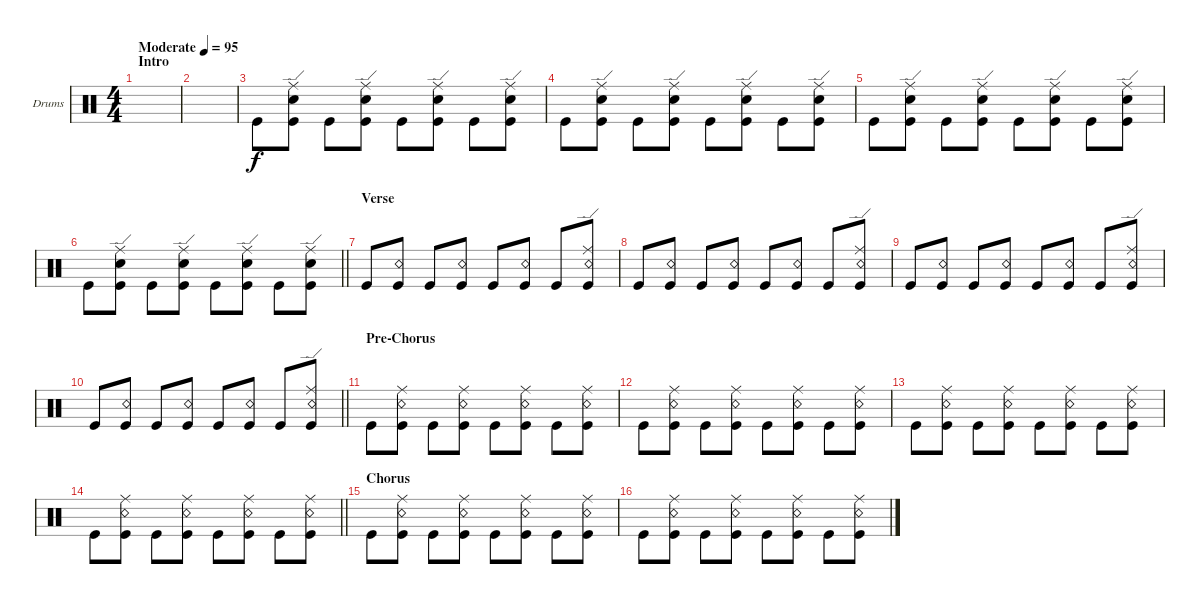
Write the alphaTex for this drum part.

\bracketExtendMode groupsimilarinstruments
\firstSystemTrackNameOrientation horizontal
\otherSystemsTrackNameOrientation horizontal
\track ("Drumkit" "Drums") {instrument percussion}
\staff {score}
\articulation defaults
\ts (4 4)
\beaming (8 2 2 2 2)
\section ("" "Intro")
\tempo (95 "Moderate")
\clef neutral
\scale
0.472222
\ks c
|
\scale
0.263889 |
\scale
0.263889 "Kick (hit)".8 ("Kick (hit)" "Snare (hit) 2" "Ride (edge)").8 "Kick (hit)".8 ("Kick (hit)" "Snare (hit) 2" "Ride (edge)").8 "Kick (hit)".8 ("Kick (hit)" "Snare (hit) 2" "Ride (edge)").8 "Kick (hit)".8 ("Kick (hit)" "Snare (hit) 2" "Ride (edge)").8 |
\scale
0.333333 "Kick (hit)".8 ("Kick (hit)" "Snare (hit) 2" "Ride (edge)").8 "Kick (hit)".8 ("Kick (hit)" "Snare (hit) 2" "Ride (edge)").8 "Kick (hit)".8 ("Kick (hit)" "Snare (hit) 2" "Ride (edge)").8 "Kick (hit)".8 ("Kick (hit)" "Snare (hit) 2" "Ride (edge)").8 |
\scale
0.333333 "Kick (hit)".8 ("Kick (hit)" "Snare (hit) 2" "Ride (edge)").8 "Kick (hit)".8 ("Kick (hit)" "Snare (hit) 2" "Ride (edge)").8 "Kick (hit)".8 ("Kick (hit)" "Snare (hit) 2" "Ride (edge)").8 "Kick (hit)".8 ("Kick (hit)" "Snare (hit) 2" "Ride (edge)").8 |
\scale
0.333333
\barLineRight lightlight "Kick (hit)".8
("Kick (hit)" "Snare (hit) 2" "Ride (edge)").8 "Kick (hit)".8 ("Kick (hit)" "Snare (hit) 2" "Ride (edge)").8 "Kick (hit)".8 ("Kick (hit)" "Snare (hit) 2" "Ride (edge)").8 "Kick (hit)".8 ("Kick (hit)" "Snare (hit) 2" "Ride (edge)").8 |
\section ("" "Verse")
\scale
0.333333 "Kick (hit)".8 ("Kick (hit)" "Snare (rim shot)").8 "Kick (hit)".8 ("Kick (hit)" "Snare (rim shot)").8 "Kick (hit)".8 ("Kick (hit)" "Snare (rim shot)").8 "Kick (hit)".8 ("Kick (hit)" "Snare (rim shot)" "Ride (edge)").8 |
\scale
0.333333 "Kick (hit)".8 ("Kick (hit)" "Snare (rim shot)").8 "Kick (hit)".8 ("Kick (hit)" "Snare (rim shot)").8 "Kick (hit)".8 ("Kick (hit)" "Snare (rim shot)").8 "Kick (hit)".8 ("Kick (hit)" "Snare (rim shot)" "Ride (edge)").8 |
\scale
0.333333 "Kick (hit)".8 ("Kick (hit)" "Snare (rim shot)").8 "Kick (hit)".8 ("Kick (hit)" "Snare (rim shot)").8 "Kick (hit)".8 ("Kick (hit)" "Snare (rim shot)").8 "Kick (hit)".8 ("Kick (hit)" "Snare (rim shot)" "Ride (edge)").8 |
\scale
0.333333
\barLineRight lightlight "Kick (hit)".8
("Kick (hit)" "Snare (rim shot)").8 "Kick (hit)".8 ("Kick (hit)" "Snare (rim shot)").8 "Kick (hit)".8 ("Kick (hit)" "Snare (rim shot)").8 "Kick (hit)".8 ("Kick (hit)" "Snare (rim shot)" "Ride (edge)").8 |
\section ("" "Pre-Chorus")
\scale
0.333333 "Kick (hit)".8 ("Kick (hit)" "Snare (rim shot)" "Ride (middle)").8 "Kick (hit)".8 ("Kick (hit)" "Snare (rim shot)" "Ride (middle)").8 "Kick (hit)".8 ("Kick (hit)" "Snare (rim shot)" "Ride (middle)").8 "Kick (hit)".8 ("Kick (hit)" "Snare (rim shot)" "Ride (middle)").8 |
\scale
0.333333 "Kick (hit)".8 ("Kick (hit)" "Snare (rim shot)" "Ride (middle)").8 "Kick (hit)".8 ("Kick (hit)" "Snare (rim shot)" "Ride (middle)").8 "Kick (hit)".8 ("Kick (hit)" "Snare (rim shot)" "Ride (middle)").8 "Kick (hit)".8 ("Kick (hit)" "Snare (rim shot)" "Ride (middle)").8 |
\scale
0.333333 "Kick (hit)".8 ("Kick (hit)" "Snare (rim shot)" "Ride (middle)").8 "Kick (hit)".8 ("Kick (hit)" "Snare (rim shot)" "Ride (middle)").8 "Kick (hit)".8 ("Kick (hit)" "Snare (rim shot)" "Ride (middle)").8 "Kick (hit)".8 ("Kick (hit)" "Snare (rim shot)" "Ride (middle)").8 |
\scale
0.333333
\barLineRight lightlight "Kick (hit)".8
("Kick (hit)" "Snare (rim shot)" "Ride (middle)").8 "Kick (hit)".8 ("Kick (hit)" "Snare (rim shot)" "Ride (middle)").8 "Kick (hit)".8 ("Kick (hit)" "Snare (rim shot)" "Ride (middle)").8 "Kick (hit)".8 ("Kick (hit)" "Snare (rim shot)" "Ride (middle)").8 |
\section ("" "Chorus")
\scale
0.333333 "Kick (hit)".8 ("Kick (hit)" "Snare (rim shot)" "Ride (middle)").8 "Kick (hit)".8 ("Kick (hit)" "Snare (rim shot)" "Ride (middle)").8 "Kick (hit)".8 ("Kick (hit)" "Snare (rim shot)" "Ride (middle)").8 "Kick (hit)".8 ("Kick (hit)" "Snare (rim shot)" "Ride (middle)").8 |
\scale
0.333333 "Kick (hit)".8 ("Kick (hit)" "Snare (rim shot)" "Ride (middle)").8 "Kick (hit)".8 ("Kick (hit)" "Snare (rim shot)" "Ride (middle)").8 "Kick (hit)".8 ("Kick (hit)" "Snare (rim shot)" "Ride (middle)").8 "Kick (hit)".8 ("Kick (hit)" "Snare (rim shot)" "Ride (middle)").8
